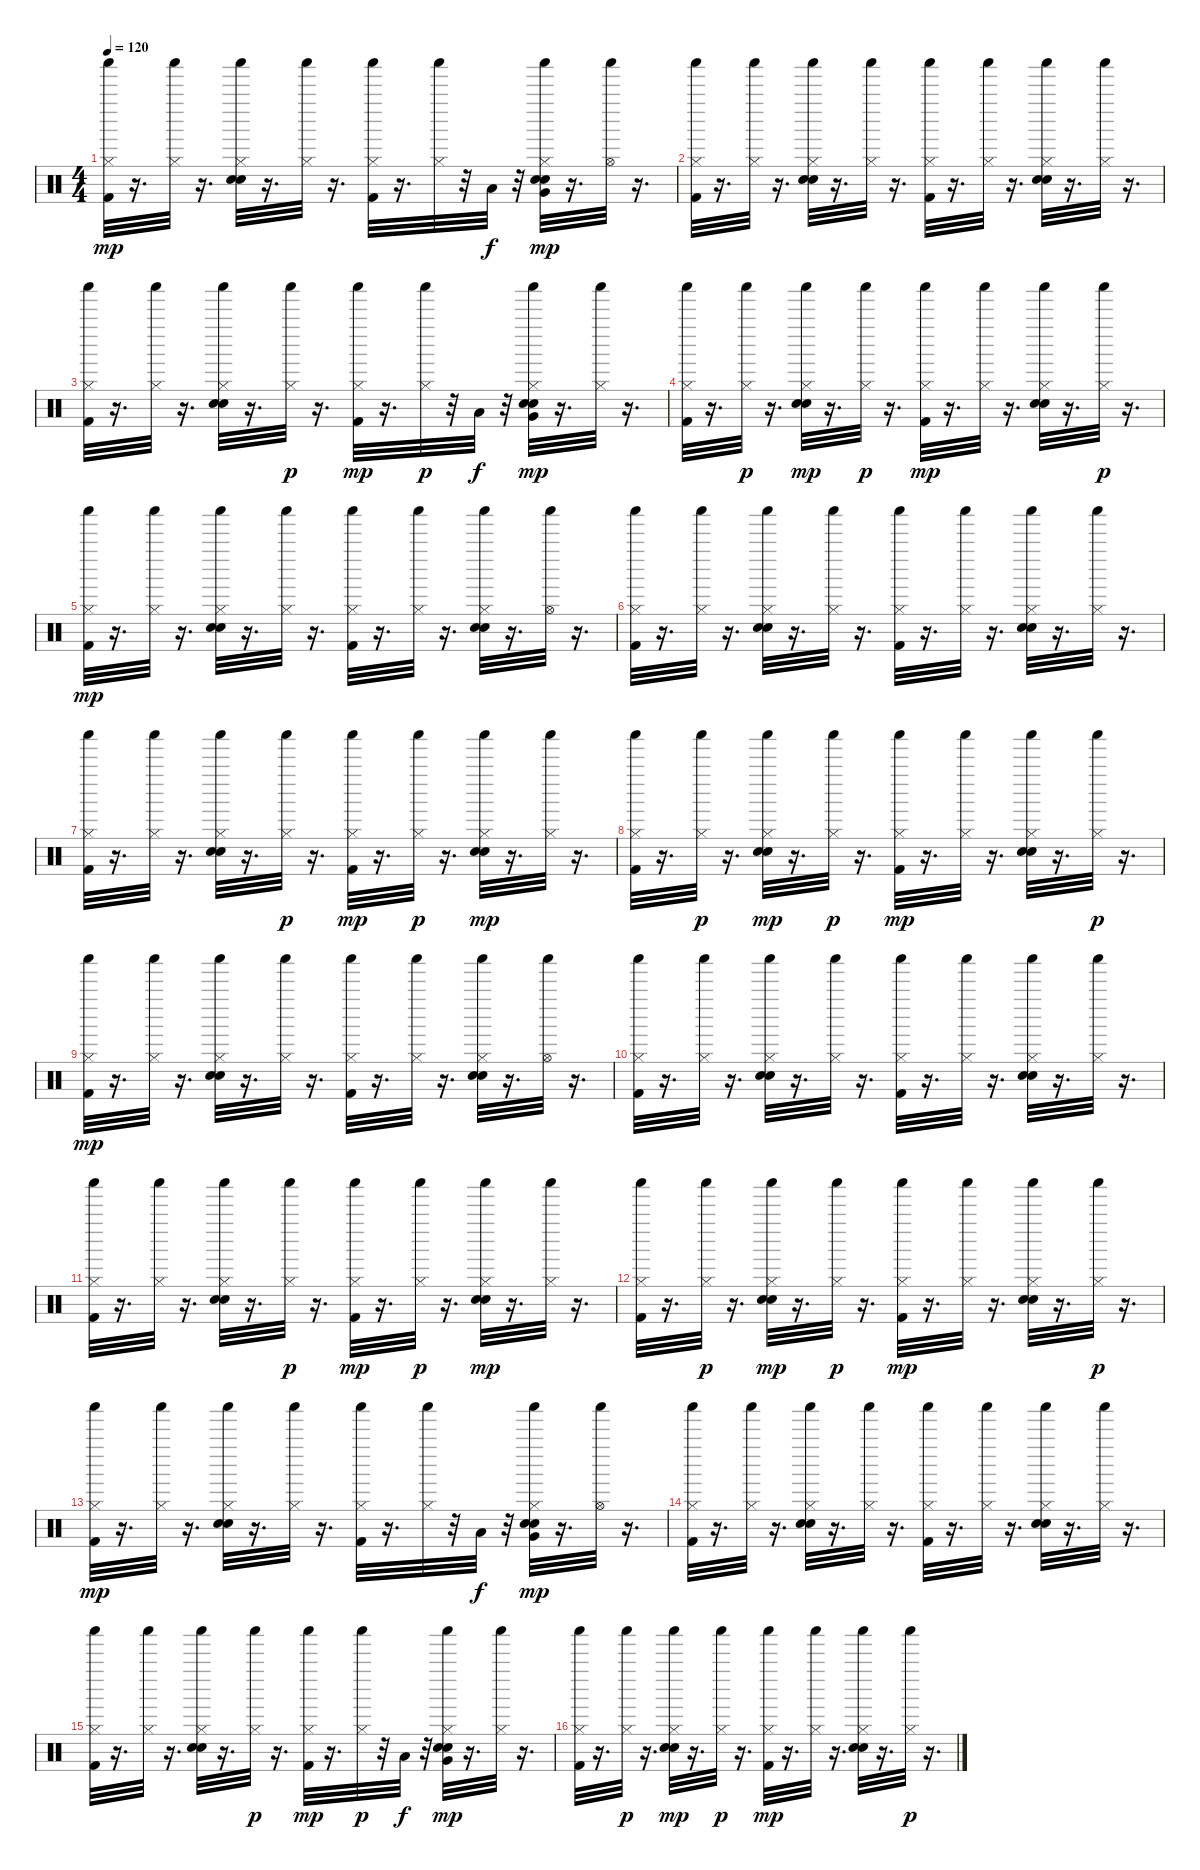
\track "" {instrument percussion}
\staff {score}
\articulation defaults
\ts (4 4)
\tempo 120
\clef neutral
\ks c
("Kick (hit) 2" "Hi-Hat (closed)" "Shaker (hit)").32{dy mp} r.16{d} ("Hi-Hat (closed)" "Shaker (hit)").32 r.16{d} ("Hand Clap (hit)" "Electric Snare (hit)" "Hi-Hat (closed)" "Shaker (hit)").32 r.16{d} ("Hi-Hat (closed)" "Shaker (hit)").32 r.16{d} ("Kick (hit) 2" "Hi-Hat (closed)" "Shaker (hit)").32 r.16{d} ("Hi-Hat (closed)" "Shaker (hit)").32 r.32 "Low Tom (hit)".32{dy f} r.32 ("Hand Clap (hit)" "Electric Snare (hit)" "Hi-Hat (closed)" "Very Low Tom (hit)" "Shaker (hit)").32{dy mp} r.16{d} ("Hi-Hat (open)" "Shaker (hit)").32 r.16{d} |
("Kick (hit) 2" "Hi-Hat (closed)" "Shaker (hit)").32 r.16{d} ("Hi-Hat (closed)" "Shaker (hit)").32 r.16{d} ("Hand Clap (hit)" "Electric Snare (hit)" "Hi-Hat (closed)" "Shaker (hit)").32 r.16{d} ("Hi-Hat (closed)" "Shaker (hit)").32 r.16{d} ("Kick (hit) 2" "Hi-Hat (closed)" "Shaker (hit)").32 r.16{d} ("Hi-Hat (closed)" "Shaker (hit)").32 r.16{d} ("Hand Clap (hit)" "Electric Snare (hit)" "Hi-Hat (closed)" "Shaker (hit)").32 r.16{d} ("Hi-Hat (closed)" "Shaker (hit)").32 r.16{d} |
("Kick (hit) 2" "Hi-Hat (closed)" "Shaker (hit)").32 r.16{d} ("Hi-Hat (closed)" "Shaker (hit)").32 r.16{d} ("Hand Clap (hit)" "Electric Snare (hit)" "Hi-Hat (closed)" "Shaker (hit)").32 r.16{d} ("Hi-Hat (closed)" "Shaker (hit)").32{dy p} r.16{d} ("Kick (hit) 2" "Hi-Hat (closed)" "Shaker (hit)").32{dy mp} r.16{d} ("Hi-Hat (closed)" "Shaker (hit)").32{dy p} r.32 "Low Tom (hit)".32{dy f} r.32 ("Hand Clap (hit)" "Electric Snare (hit)" "Hi-Hat (closed)" "Very Low Tom (hit)" "Shaker (hit)").32{dy mp} r.16{d} ("Hi-Hat (closed)" "Shaker (hit)").32 r.16{d} |
("Kick (hit) 2" "Hi-Hat (closed)" "Shaker (hit)").32 r.16{d} ("Hi-Hat (closed)" "Shaker (hit)").32{dy p} r.16{d} ("Hand Clap (hit)" "Electric Snare (hit)" "Hi-Hat (closed)" "Shaker (hit)").32{dy mp} r.16{d} ("Hi-Hat (closed)" "Shaker (hit)").32{dy p} r.16{d} ("Kick (hit) 2" "Hi-Hat (closed)" "Shaker (hit)").32{dy mp} r.16{d} ("Hi-Hat (closed)" "Shaker (hit)").32 r.16{d} ("Hand Clap (hit)" "Electric Snare (hit)" "Hi-Hat (closed)" "Shaker (hit)").32 r.16{d} ("Hi-Hat (closed)" "Shaker (hit)").32{dy p} r.16{d} |
("Kick (hit) 2" "Hi-Hat (closed)" "Shaker (hit)").32{dy mp} r.16{d} ("Hi-Hat (closed)" "Shaker (hit)").32 r.16{d} ("Hand Clap (hit)" "Electric Snare (hit)" "Hi-Hat (closed)" "Shaker (hit)").32 r.16{d} ("Hi-Hat (closed)" "Shaker (hit)").32 r.16{d} ("Kick (hit) 2" "Hi-Hat (closed)" "Shaker (hit)").32 r.16{d} ("Hi-Hat (closed)" "Shaker (hit)").32 r.16{d} ("Hand Clap (hit)" "Electric Snare (hit)" "Hi-Hat (closed)" "Shaker (hit)").32 r.16{d} ("Hi-Hat (open)" "Shaker (hit)").32 r.16{d} |
("Kick (hit) 2" "Hi-Hat (closed)" "Shaker (hit)").32 r.16{d} ("Hi-Hat (closed)" "Shaker (hit)").32 r.16{d} ("Hand Clap (hit)" "Electric Snare (hit)" "Hi-Hat (closed)" "Shaker (hit)").32 r.16{d} ("Hi-Hat (closed)" "Shaker (hit)").32 r.16{d} ("Kick (hit) 2" "Hi-Hat (closed)" "Shaker (hit)").32 r.16{d} ("Hi-Hat (closed)" "Shaker (hit)").32 r.16{d} ("Hand Clap (hit)" "Electric Snare (hit)" "Hi-Hat (closed)" "Shaker (hit)").32 r.16{d} ("Hi-Hat (closed)" "Shaker (hit)").32 r.16{d} |
("Kick (hit) 2" "Hi-Hat (closed)" "Shaker (hit)").32 r.16{d} ("Hi-Hat (closed)" "Shaker (hit)").32 r.16{d} ("Hand Clap (hit)" "Electric Snare (hit)" "Hi-Hat (closed)" "Shaker (hit)").32 r.16{d} ("Hi-Hat (closed)" "Shaker (hit)").32{dy p} r.16{d} ("Kick (hit) 2" "Hi-Hat (closed)" "Shaker (hit)").32{dy mp} r.16{d} ("Hi-Hat (closed)" "Shaker (hit)").32{dy p} r.16{d} ("Hand Clap (hit)" "Electric Snare (hit)" "Hi-Hat (closed)" "Shaker (hit)").32{dy mp} r.16{d} ("Hi-Hat (closed)" "Shaker (hit)").32 r.16{d} |
("Kick (hit) 2" "Hi-Hat (closed)" "Shaker (hit)").32 r.16{d} ("Hi-Hat (closed)" "Shaker (hit)").32{dy p} r.16{d} ("Hand Clap (hit)" "Electric Snare (hit)" "Hi-Hat (closed)" "Shaker (hit)").32{dy mp} r.16{d} ("Hi-Hat (closed)" "Shaker (hit)").32{dy p} r.16{d} ("Kick (hit) 2" "Hi-Hat (closed)" "Shaker (hit)").32{dy mp} r.16{d} ("Hi-Hat (closed)" "Shaker (hit)").32 r.16{d} ("Hand Clap (hit)" "Electric Snare (hit)" "Hi-Hat (closed)" "Shaker (hit)").32 r.16{d} ("Hi-Hat (closed)" "Shaker (hit)").32{dy p} r.16{d} |
("Kick (hit) 2" "Hi-Hat (closed)" "Shaker (hit)").32{dy mp} r.16{d} ("Hi-Hat (closed)" "Shaker (hit)").32 r.16{d} ("Hand Clap (hit)" "Electric Snare (hit)" "Hi-Hat (closed)" "Shaker (hit)").32 r.16{d} ("Hi-Hat (closed)" "Shaker (hit)").32 r.16{d} ("Kick (hit) 2" "Hi-Hat (closed)" "Shaker (hit)").32 r.16{d} ("Hi-Hat (closed)" "Shaker (hit)").32 r.16{d} ("Hand Clap (hit)" "Electric Snare (hit)" "Hi-Hat (closed)" "Shaker (hit)").32 r.16{d} ("Hi-Hat (open)" "Shaker (hit)").32 r.16{d} |
("Kick (hit) 2" "Hi-Hat (closed)" "Shaker (hit)").32 r.16{d} ("Hi-Hat (closed)" "Shaker (hit)").32 r.16{d} ("Hand Clap (hit)" "Electric Snare (hit)" "Hi-Hat (closed)" "Shaker (hit)").32 r.16{d} ("Hi-Hat (closed)" "Shaker (hit)").32 r.16{d} ("Kick (hit) 2" "Hi-Hat (closed)" "Shaker (hit)").32 r.16{d} ("Hi-Hat (closed)" "Shaker (hit)").32 r.16{d} ("Hand Clap (hit)" "Electric Snare (hit)" "Hi-Hat (closed)" "Shaker (hit)").32 r.16{d} ("Hi-Hat (closed)" "Shaker (hit)").32 r.16{d} |
("Kick (hit) 2" "Hi-Hat (closed)" "Shaker (hit)").32 r.16{d} ("Hi-Hat (closed)" "Shaker (hit)").32 r.16{d} ("Hand Clap (hit)" "Electric Snare (hit)" "Hi-Hat (closed)" "Shaker (hit)").32 r.16{d} ("Hi-Hat (closed)" "Shaker (hit)").32{dy p} r.16{d} ("Kick (hit) 2" "Hi-Hat (closed)" "Shaker (hit)").32{dy mp} r.16{d} ("Hi-Hat (closed)" "Shaker (hit)").32{dy p} r.16{d} ("Hand Clap (hit)" "Electric Snare (hit)" "Hi-Hat (closed)" "Shaker (hit)").32{dy mp} r.16{d} ("Hi-Hat (closed)" "Shaker (hit)").32 r.16{d} |
("Kick (hit) 2" "Hi-Hat (closed)" "Shaker (hit)").32 r.16{d} ("Hi-Hat (closed)" "Shaker (hit)").32{dy p} r.16{d} ("Hand Clap (hit)" "Electric Snare (hit)" "Hi-Hat (closed)" "Shaker (hit)").32{dy mp} r.16{d} ("Hi-Hat (closed)" "Shaker (hit)").32{dy p} r.16{d} ("Kick (hit) 2" "Hi-Hat (closed)" "Shaker (hit)").32{dy mp} r.16{d} ("Hi-Hat (closed)" "Shaker (hit)").32 r.16{d} ("Hand Clap (hit)" "Electric Snare (hit)" "Hi-Hat (closed)" "Shaker (hit)").32 r.16{d} ("Hi-Hat (closed)" "Shaker (hit)").32{dy p} r.16{d} |
("Kick (hit) 2" "Hi-Hat (closed)" "Shaker (hit)").32{dy mp} r.16{d} ("Hi-Hat (closed)" "Shaker (hit)").32 r.16{d} ("Hand Clap (hit)" "Electric Snare (hit)" "Hi-Hat (closed)" "Shaker (hit)").32 r.16{d} ("Hi-Hat (closed)" "Shaker (hit)").32 r.16{d} ("Kick (hit) 2" "Hi-Hat (closed)" "Shaker (hit)").32 r.16{d} ("Hi-Hat (closed)" "Shaker (hit)").32 r.32 "Low Tom (hit)".32{dy f} r.32 ("Hand Clap (hit)" "Electric Snare (hit)" "Hi-Hat (closed)" "Very Low Tom (hit)" "Shaker (hit)").32{dy mp} r.16{d} ("Hi-Hat (open)" "Shaker (hit)").32 r.16{d} |
("Kick (hit) 2" "Hi-Hat (closed)" "Shaker (hit)").32 r.16{d} ("Hi-Hat (closed)" "Shaker (hit)").32 r.16{d} ("Hand Clap (hit)" "Electric Snare (hit)" "Hi-Hat (closed)" "Shaker (hit)").32 r.16{d} ("Hi-Hat (closed)" "Shaker (hit)").32 r.16{d} ("Kick (hit) 2" "Hi-Hat (closed)" "Shaker (hit)").32 r.16{d} ("Hi-Hat (closed)" "Shaker (hit)").32 r.16{d} ("Hand Clap (hit)" "Electric Snare (hit)" "Hi-Hat (closed)" "Shaker (hit)").32 r.16{d} ("Hi-Hat (closed)" "Shaker (hit)").32 r.16{d} |
("Kick (hit) 2" "Hi-Hat (closed)" "Shaker (hit)").32 r.16{d} ("Hi-Hat (closed)" "Shaker (hit)").32 r.16{d} ("Hand Clap (hit)" "Electric Snare (hit)" "Hi-Hat (closed)" "Shaker (hit)").32 r.16{d} ("Hi-Hat (closed)" "Shaker (hit)").32{dy p} r.16{d} ("Kick (hit) 2" "Hi-Hat (closed)" "Shaker (hit)").32{dy mp} r.16{d} ("Hi-Hat (closed)" "Shaker (hit)").32{dy p} r.32 "Low Tom (hit)".32{dy f} r.32 ("Hand Clap (hit)" "Electric Snare (hit)" "Hi-Hat (closed)" "Very Low Tom (hit)" "Shaker (hit)").32{dy mp} r.16{d} ("Hi-Hat (closed)" "Shaker (hit)").32 r.16{d} |
("Kick (hit) 2" "Hi-Hat (closed)" "Shaker (hit)").32 r.16{d} ("Hi-Hat (closed)" "Shaker (hit)").32{dy p} r.16{d} ("Hand Clap (hit)" "Electric Snare (hit)" "Hi-Hat (closed)" "Shaker (hit)").32{dy mp} r.16{d} ("Hi-Hat (closed)" "Shaker (hit)").32{dy p} r.16{d} ("Kick (hit) 2" "Hi-Hat (closed)" "Shaker (hit)").32{dy mp} r.16{d} ("Hi-Hat (closed)" "Shaker (hit)").32 r.16{d} ("Hand Clap (hit)" "Electric Snare (hit)" "Hi-Hat (closed)" "Shaker (hit)").32 r.16{d} ("Hi-Hat (closed)" "Shaker (hit)").32{dy p} r.16{d}
